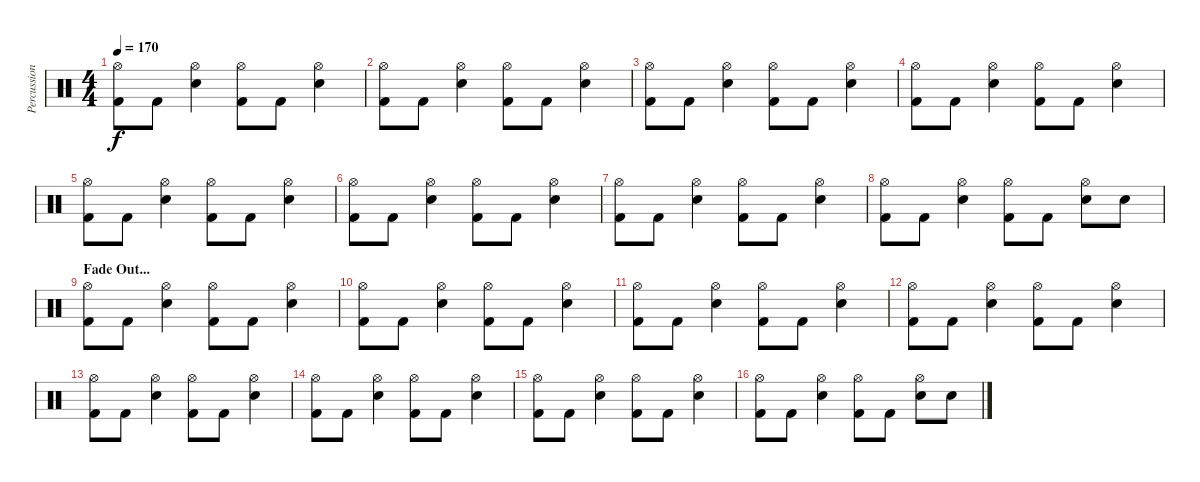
\track ("Percussion" "Percussion") {instrument percussion}
\staff {score}
\articulation defaults
\ts (4 4)
\tempo 170
\clef neutral
\ks c
("Hi-Hat (open)" "Kick (hit) 2").8{dy f} "Kick (hit) 2".8 ("Hi-Hat (open)" "Snare (hit) 2").4 ("Hi-Hat (open)" "Kick (hit) 2").8 "Kick (hit) 2".8 ("Hi-Hat (open)" "Snare (hit) 2").4 |
("Hi-Hat (open)" "Kick (hit) 2").8 "Kick (hit) 2".8 ("Hi-Hat (open)" "Snare (hit) 2").4 ("Hi-Hat (open)" "Kick (hit) 2").8 "Kick (hit) 2".8 ("Hi-Hat (open)" "Snare (hit) 2").4 |
("Hi-Hat (open)" "Kick (hit) 2").8 "Kick (hit) 2".8 ("Hi-Hat (open)" "Snare (hit) 2").4 ("Hi-Hat (open)" "Kick (hit) 2").8 "Kick (hit) 2".8 ("Hi-Hat (open)" "Snare (hit) 2").4 |
("Hi-Hat (open)" "Kick (hit) 2").8 "Kick (hit) 2".8 ("Hi-Hat (open)" "Snare (hit) 2").4 ("Hi-Hat (open)" "Kick (hit) 2").8 "Kick (hit) 2".8 ("Hi-Hat (open)" "Snare (hit) 2").4 |
("Hi-Hat (open)" "Kick (hit) 2").8 "Kick (hit) 2".8 ("Hi-Hat (open)" "Snare (hit) 2").4 ("Hi-Hat (open)" "Kick (hit) 2").8 "Kick (hit) 2".8 ("Hi-Hat (open)" "Snare (hit) 2").4 |
("Hi-Hat (open)" "Kick (hit) 2").8 "Kick (hit) 2".8 ("Hi-Hat (open)" "Snare (hit) 2").4 ("Hi-Hat (open)" "Kick (hit) 2").8 "Kick (hit) 2".8 ("Hi-Hat (open)" "Snare (hit) 2").4 |
("Hi-Hat (open)" "Kick (hit) 2").8 "Kick (hit) 2".8 ("Hi-Hat (open)" "Snare (hit) 2").4 ("Hi-Hat (open)" "Kick (hit) 2").8 "Kick (hit) 2".8 ("Hi-Hat (open)" "Snare (hit) 2").4 |
("Hi-Hat (open)" "Kick (hit) 2").8 "Kick (hit) 2".8 ("Hi-Hat (open)" "Snare (hit) 2").4 ("Hi-Hat (open)" "Kick (hit) 2").8 "Kick (hit) 2".8 ("Hi-Hat (open)" "Snare (hit) 2").8 "Snare (hit) 2".8 |
\section ("" "Fade Out...")
("Hi-Hat (open)" "Kick (hit) 2").8 "Kick (hit) 2".8 ("Hi-Hat (open)" "Snare (hit) 2").4 ("Hi-Hat (open)" "Kick (hit) 2").8 "Kick (hit) 2".8 ("Hi-Hat (open)" "Snare (hit) 2").4 |
("Hi-Hat (open)" "Kick (hit) 2").8 "Kick (hit) 2".8 ("Hi-Hat (open)" "Snare (hit) 2").4 ("Hi-Hat (open)" "Kick (hit) 2").8 "Kick (hit) 2".8 ("Hi-Hat (open)" "Snare (hit) 2").4 |
("Hi-Hat (open)" "Kick (hit) 2").8 "Kick (hit) 2".8 ("Hi-Hat (open)" "Snare (hit) 2").4 ("Hi-Hat (open)" "Kick (hit) 2").8 "Kick (hit) 2".8 ("Hi-Hat (open)" "Snare (hit) 2").4 |
("Hi-Hat (open)" "Kick (hit) 2").8 "Kick (hit) 2".8 ("Hi-Hat (open)" "Snare (hit) 2").4 ("Hi-Hat (open)" "Kick (hit) 2").8 "Kick (hit) 2".8 ("Hi-Hat (open)" "Snare (hit) 2").4 |
("Hi-Hat (open)" "Kick (hit) 2").8 "Kick (hit) 2".8 ("Hi-Hat (open)" "Snare (hit) 2").4 ("Hi-Hat (open)" "Kick (hit) 2").8 "Kick (hit) 2".8 ("Hi-Hat (open)" "Snare (hit) 2").4 |
("Hi-Hat (open)" "Kick (hit) 2").8 "Kick (hit) 2".8 ("Hi-Hat (open)" "Snare (hit) 2").4 ("Hi-Hat (open)" "Kick (hit) 2").8 "Kick (hit) 2".8 ("Hi-Hat (open)" "Snare (hit) 2").4 |
("Hi-Hat (open)" "Kick (hit) 2").8 "Kick (hit) 2".8 ("Hi-Hat (open)" "Snare (hit) 2").4 ("Hi-Hat (open)" "Kick (hit) 2").8 "Kick (hit) 2".8 ("Hi-Hat (open)" "Snare (hit) 2").4 |
("Hi-Hat (open)" "Kick (hit) 2").8 "Kick (hit) 2".8 ("Hi-Hat (open)" "Snare (hit) 2").4 ("Hi-Hat (open)" "Kick (hit) 2").8 "Kick (hit) 2".8 ("Hi-Hat (open)" "Snare (hit) 2").8 "Snare (hit) 2".8
